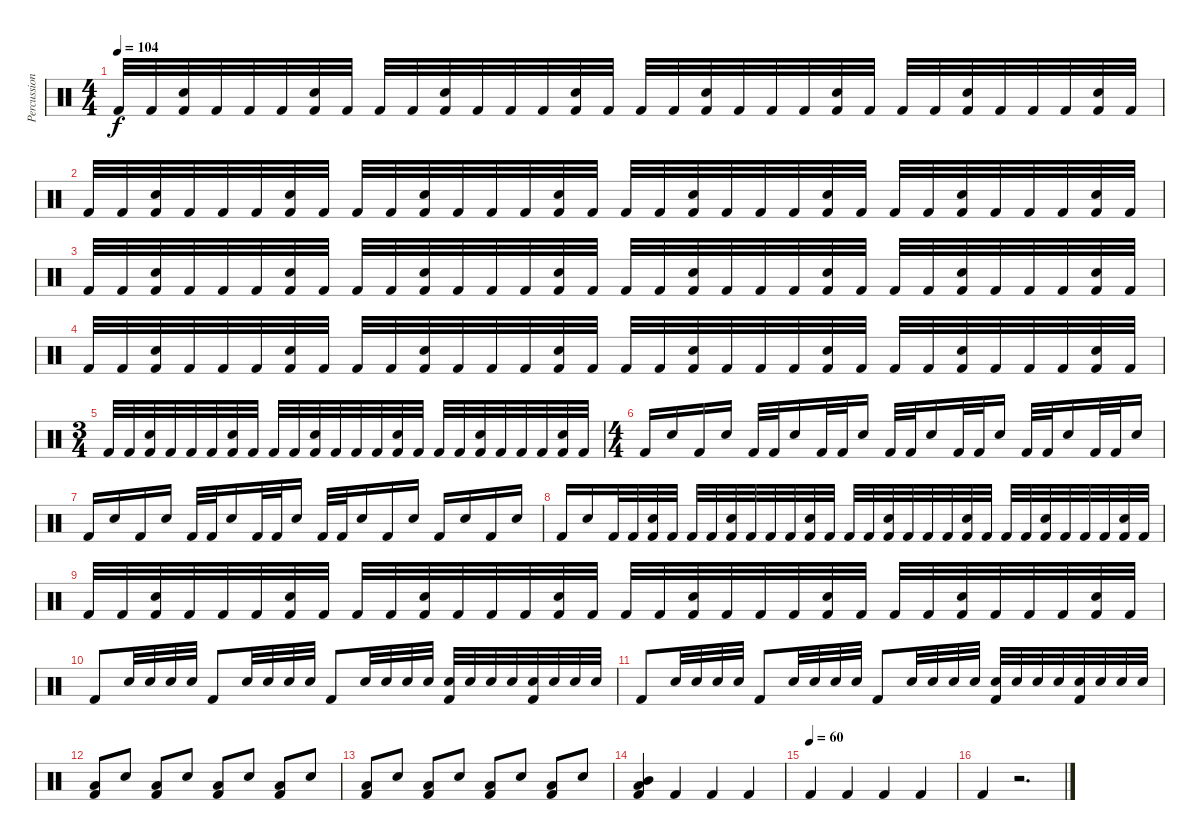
\track ("Percussion" "Percussion") {instrument percussion}
\staff {score}
\articulation defaults
\ts (4 4)
\tempo 104
\clef neutral
\ks c "Kick (hit) 2".32{dy f} "Kick (hit) 2".32
("Snare (hit) 2" "Kick (hit) 2").32 "Kick (hit) 2".32 "Kick (hit) 2".32 "Kick (hit) 2".32 ("Snare (hit) 2" "Kick (hit) 2").32 "Kick (hit) 2".32 "Kick (hit) 2".32 "Kick (hit) 2".32 ("Snare (hit) 2" "Kick (hit) 2").32 "Kick (hit) 2".32 "Kick (hit) 2".32 "Kick (hit) 2".32 ("Snare (hit) 2" "Kick (hit) 2").32 "Kick (hit) 2".32 "Kick (hit) 2".32 "Kick (hit) 2".32 ("Snare (hit) 2" "Kick (hit) 2").32 "Kick (hit) 2".32 "Kick (hit) 2".32 "Kick (hit) 2".32 ("Snare (hit) 2" "Kick (hit) 2").32 "Kick (hit) 2".32 "Kick (hit) 2".32 "Kick (hit) 2".32 ("Snare (hit) 2" "Kick (hit) 2").32 "Kick (hit) 2".32 "Kick (hit) 2".32 "Kick (hit) 2".32 ("Snare (hit) 2" "Kick (hit) 2").32 "Kick (hit) 2".32 |
"Kick (hit) 2".32 "Kick (hit) 2".32 ("Snare (hit) 2" "Kick (hit) 2").32 "Kick (hit) 2".32 "Kick (hit) 2".32 "Kick (hit) 2".32 ("Snare (hit) 2" "Kick (hit) 2").32 "Kick (hit) 2".32 "Kick (hit) 2".32 "Kick (hit) 2".32 ("Snare (hit) 2" "Kick (hit) 2").32 "Kick (hit) 2".32 "Kick (hit) 2".32 "Kick (hit) 2".32 ("Snare (hit) 2" "Kick (hit) 2").32 "Kick (hit) 2".32 "Kick (hit) 2".32 "Kick (hit) 2".32 ("Snare (hit) 2" "Kick (hit) 2").32 "Kick (hit) 2".32 "Kick (hit) 2".32 "Kick (hit) 2".32 ("Snare (hit) 2" "Kick (hit) 2").32 "Kick (hit) 2".32 "Kick (hit) 2".32 "Kick (hit) 2".32 ("Snare (hit) 2" "Kick (hit) 2").32 "Kick (hit) 2".32 "Kick (hit) 2".32 "Kick (hit) 2".32 ("Snare (hit) 2" "Kick (hit) 2").32 "Kick (hit) 2".32 |
"Kick (hit) 2".32 "Kick (hit) 2".32 ("Snare (hit) 2" "Kick (hit) 2").32 "Kick (hit) 2".32 "Kick (hit) 2".32 "Kick (hit) 2".32 ("Snare (hit) 2" "Kick (hit) 2").32 "Kick (hit) 2".32 "Kick (hit) 2".32 "Kick (hit) 2".32 ("Snare (hit) 2" "Kick (hit) 2").32 "Kick (hit) 2".32 "Kick (hit) 2".32 "Kick (hit) 2".32 ("Snare (hit) 2" "Kick (hit) 2").32 "Kick (hit) 2".32 "Kick (hit) 2".32 "Kick (hit) 2".32 ("Snare (hit) 2" "Kick (hit) 2").32 "Kick (hit) 2".32 "Kick (hit) 2".32 "Kick (hit) 2".32 ("Snare (hit) 2" "Kick (hit) 2").32 "Kick (hit) 2".32 "Kick (hit) 2".32 "Kick (hit) 2".32 ("Snare (hit) 2" "Kick (hit) 2").32 "Kick (hit) 2".32 "Kick (hit) 2".32 "Kick (hit) 2".32 ("Snare (hit) 2" "Kick (hit) 2").32 "Kick (hit) 2".32 |
"Kick (hit) 2".32 "Kick (hit) 2".32 ("Snare (hit) 2" "Kick (hit) 2").32 "Kick (hit) 2".32 "Kick (hit) 2".32 "Kick (hit) 2".32 ("Snare (hit) 2" "Kick (hit) 2").32 "Kick (hit) 2".32 "Kick (hit) 2".32 "Kick (hit) 2".32 ("Snare (hit) 2" "Kick (hit) 2").32 "Kick (hit) 2".32 "Kick (hit) 2".32 "Kick (hit) 2".32 ("Snare (hit) 2" "Kick (hit) 2").32 "Kick (hit) 2".32 "Kick (hit) 2".32 "Kick (hit) 2".32 ("Snare (hit) 2" "Kick (hit) 2").32 "Kick (hit) 2".32 "Kick (hit) 2".32 "Kick (hit) 2".32 ("Snare (hit) 2" "Kick (hit) 2").32 "Kick (hit) 2".32 "Kick (hit) 2".32 "Kick (hit) 2".32 ("Snare (hit) 2" "Kick (hit) 2").32 "Kick (hit) 2".32 "Kick (hit) 2".32 "Kick (hit) 2".32 ("Snare (hit) 2" "Kick (hit) 2").32 "Kick (hit) 2".32 |
\ts (3 4)
"Kick (hit) 2".32 "Kick (hit) 2".32 ("Snare (hit) 2" "Kick (hit) 2").32 "Kick (hit) 2".32 "Kick (hit) 2".32 "Kick (hit) 2".32 ("Snare (hit) 2" "Kick (hit) 2").32 "Kick (hit) 2".32 "Kick (hit) 2".32 "Kick (hit) 2".32 ("Snare (hit) 2" "Kick (hit) 2").32 "Kick (hit) 2".32 "Kick (hit) 2".32 "Kick (hit) 2".32 ("Snare (hit) 2" "Kick (hit) 2").32 "Kick (hit) 2".32 "Kick (hit) 2".32 "Kick (hit) 2".32 ("Snare (hit) 2" "Kick (hit) 2").32 "Kick (hit) 2".32 "Kick (hit) 2".32 "Kick (hit) 2".32 ("Snare (hit) 2" "Kick (hit) 2").32 "Kick (hit) 2".32 |
\ts (4 4)
"Kick (hit) 2".16 "Snare (hit) 2".16 "Kick (hit) 2".16 "Snare (hit) 2".16 "Kick (hit) 2".32 "Kick (hit) 2".32 "Snare (hit) 2".16 "Kick (hit) 2".32 "Kick (hit) 2".32 "Snare (hit) 2".16 "Kick (hit) 2".32 "Kick (hit) 2".32 "Snare (hit) 2".16 "Kick (hit) 2".32 "Kick (hit) 2".32 "Snare (hit) 2".16 "Kick (hit) 2".32 "Kick (hit) 2".32 "Snare (hit) 2".16 "Kick (hit) 2".32 "Kick (hit) 2".32 "Snare (hit) 2".16 |
"Kick (hit) 2".16 "Snare (hit) 2".16 "Kick (hit) 2".16 "Snare (hit) 2".16 "Kick (hit) 2".32 "Kick (hit) 2".32 "Snare (hit) 2".16 "Kick (hit) 2".32 "Kick (hit) 2".32 "Snare (hit) 2".16 "Kick (hit) 2".32 "Kick (hit) 2".32 "Snare (hit) 2".16 "Kick (hit) 2".16 "Snare (hit) 2".16 "Kick (hit) 2".16 "Snare (hit) 2".16 "Kick (hit) 2".16 "Snare (hit) 2".16 |
"Kick (hit) 2".16 "Snare (hit) 2".16 "Kick (hit) 2".32 "Kick (hit) 2".32 ("Snare (hit) 2" "Kick (hit) 2").32 "Kick (hit) 2".32 "Kick (hit) 2".32 "Kick (hit) 2".32 ("Snare (hit) 2" "Kick (hit) 2").32 "Kick (hit) 2".32 "Kick (hit) 2".32 "Kick (hit) 2".32 ("Snare (hit) 2" "Kick (hit) 2").32 "Kick (hit) 2".32 "Kick (hit) 2".32 "Kick (hit) 2".32 ("Snare (hit) 2" "Kick (hit) 2").32 "Kick (hit) 2".32 "Kick (hit) 2".32 "Kick (hit) 2".32 ("Snare (hit) 2" "Kick (hit) 2").32 "Kick (hit) 2".32 "Kick (hit) 2".32 "Kick (hit) 2".32 ("Snare (hit) 2" "Kick (hit) 2").32 "Kick (hit) 2".32 "Kick (hit) 2".32 "Kick (hit) 2".32 ("Snare (hit) 2" "Kick (hit) 2").32 "Kick (hit) 2".32 |
"Kick (hit) 2".32 "Kick (hit) 2".32 ("Snare (hit) 2" "Kick (hit) 2").32 "Kick (hit) 2".32 "Kick (hit) 2".32 "Kick (hit) 2".32 ("Snare (hit) 2" "Kick (hit) 2").32 "Kick (hit) 2".32 "Kick (hit) 2".32 "Kick (hit) 2".32 ("Snare (hit) 2" "Kick (hit) 2").32 "Kick (hit) 2".32 "Kick (hit) 2".32 "Kick (hit) 2".32 ("Snare (hit) 2" "Kick (hit) 2").32 "Kick (hit) 2".32 "Kick (hit) 2".32 "Kick (hit) 2".32 ("Snare (hit) 2" "Kick (hit) 2").32 "Kick (hit) 2".32 "Kick (hit) 2".32 "Kick (hit) 2".32 ("Snare (hit) 2" "Kick (hit) 2").32 "Kick (hit) 2".32 "Kick (hit) 2".32 "Kick (hit) 2".32 ("Snare (hit) 2" "Kick (hit) 2").32 "Kick (hit) 2".32 "Kick (hit) 2".32 "Kick (hit) 2".32 ("Snare (hit) 2" "Kick (hit) 2").32 "Kick (hit) 2".32 |
"Kick (hit) 2".8 "Snare (hit) 2".32 "Snare (hit) 2".32 "Snare (hit) 2".32 "Snare (hit) 2".32 "Kick (hit) 2".8 "Snare (hit) 2".32 "Snare (hit) 2".32 "Snare (hit) 2".32 "Snare (hit) 2".32 "Kick (hit) 2".8 "Snare (hit) 2".32 "Snare (hit) 2".32 "Snare (hit) 2".32 "Snare (hit) 2".32 ("Snare (hit) 2" "Kick (hit) 2").32 "Snare (hit) 2".32 "Snare (hit) 2".32 "Snare (hit) 2".32 ("Snare (hit) 2" "Kick (hit) 2").32 "Snare (hit) 2".32 "Snare (hit) 2".32 "Snare (hit) 2".32 |
"Kick (hit) 2".8 "Snare (hit) 2".32 "Snare (hit) 2".32 "Snare (hit) 2".32 "Snare (hit) 2".32 "Kick (hit) 2".8 "Snare (hit) 2".32 "Snare (hit) 2".32 "Snare (hit) 2".32 "Snare (hit) 2".32 "Kick (hit) 2".8 "Snare (hit) 2".32 "Snare (hit) 2".32 "Snare (hit) 2".32 "Snare (hit) 2".32 ("Snare (hit) 2" "Kick (hit) 2").32 "Snare (hit) 2".32 "Snare (hit) 2".32 "Snare (hit) 2".32 ("Snare (hit) 2" "Kick (hit) 2").32 "Snare (hit) 2".32 "Snare (hit) 2".32 "Snare (hit) 2".32 |
("Low Tom (hit)" "Kick (hit) 2").8 "Snare (hit) 2".8 ("Low Tom (hit)" "Kick (hit) 2").8 "Snare (hit) 2".8 ("Low Tom (hit)" "Kick (hit) 2").8 "Snare (hit) 2".8 ("Low Tom (hit)" "Kick (hit) 2").8 "Snare (hit) 2".8 |
("Low Tom (hit)" "Kick (hit) 2").8 "Snare (hit) 2".8 ("Low Tom (hit)" "Kick (hit) 2").8 "Snare (hit) 2".8 ("Low Tom (hit)" "Kick (hit) 2").8 "Snare (hit) 2".8 ("Low Tom (hit)" "Kick (hit) 2").8 "Snare (hit) 2".8 |
("Low Tom (hit)" "Mid Tom (hit)" "Kick (hit) 2").4 "Kick (hit) 2".4 "Kick (hit) 2".4 "Kick (hit) 2".4 |
\tempo (60)
"Kick (hit) 2".4 "Kick (hit) 2".4 "Kick (hit) 2".4 "Kick (hit) 2".4 |
"Kick (hit) 2".4 r.2{d}
